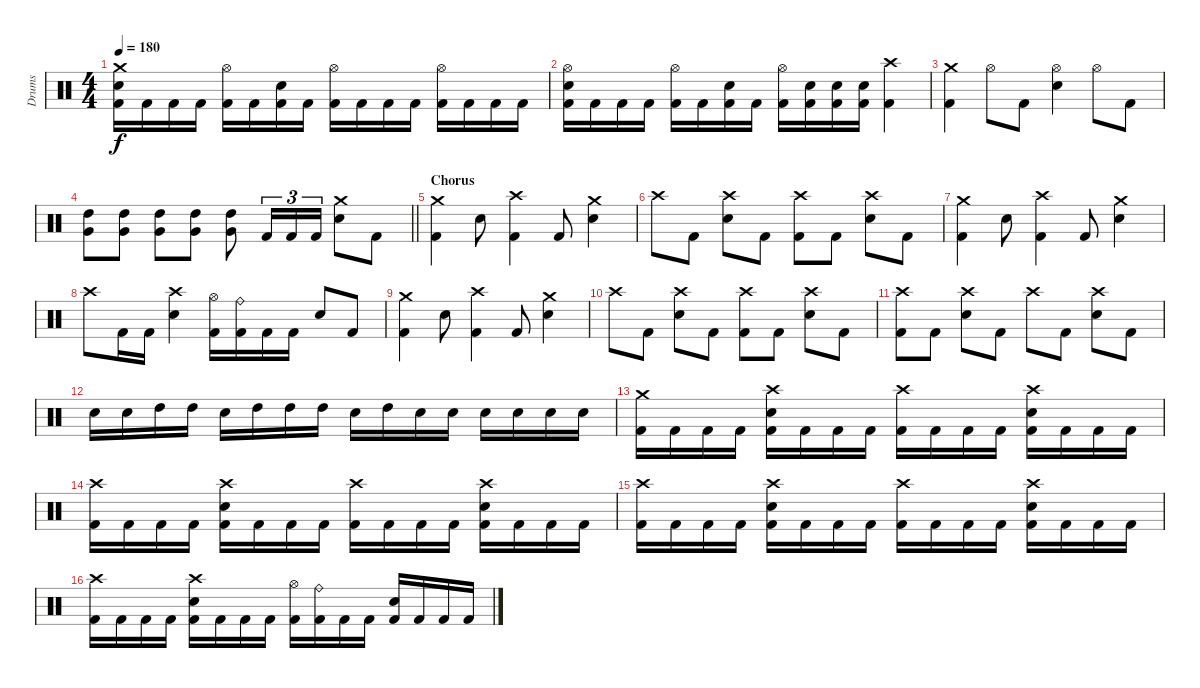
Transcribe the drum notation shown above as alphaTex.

\track ("Drums" "Drums") {instrument percussion}
\staff {score}
\articulation defaults
\ts (4 4)
\tempo 180
\clef neutral
\ks c
("Crash medium (hit)" "Snare (hit) 2" "Kick (hit) 2").16{dy f} "Kick (hit) 2".16 "Kick (hit) 2".16 "Kick (hit) 2".16 ("Hi-Hat (open)" "Kick (hit) 2").16 "Kick (hit) 2".16 ("Snare (hit) 2" "Kick (hit) 2").16 "Kick (hit) 2".16 ("Hi-Hat (open)" "Kick (hit) 2").16 "Kick (hit) 2".16 "Kick (hit) 2".16 "Kick (hit) 2".16 ("Hi-Hat (open)" "Kick (hit) 2").16 "Kick (hit) 2".16 "Kick (hit) 2".16 "Kick (hit) 2".16 |
("Hi-Hat (open)" "Snare (hit) 2" "Kick (hit) 2").16 "Kick (hit) 2".16 "Kick (hit) 2".16 "Kick (hit) 2".16 ("Hi-Hat (open)" "Kick (hit) 2").16 "Kick (hit) 2".16 ("Snare (hit) 2" "Kick (hit) 2").16 "Kick (hit) 2".16 ("Hi-Hat (open)" "Kick (hit) 2").16 ("Snare (hit) 2" "Kick (hit) 2").16 ("Snare (hit) 2" "Kick (hit) 2").16 ("Snare (hit) 2" "Kick (hit) 2").16 ("Crash high (hit)" "Kick (hit) 2").4 |
("Crash medium (hit)" "Kick (hit) 2").4 "Hi-Hat (open)".8 "Kick (hit) 2".8 ("Hi-Hat (open)" "Snare (hit) 2").4 "Hi-Hat (open)".8 "Kick (hit) 2".8 |
\barLineRight lightlight
("High Tom (hit)" "Very Low Tom (hit)").8 ("High Tom (hit)" "Very Low Tom (hit)").8 ("High Tom (hit)" "Very Low Tom (hit)").8 ("High Tom (hit)" "Very Low Tom (hit)").8 ("High Tom (hit)" "Very Low Tom (hit)").8 "Kick (hit) 2".16{tu (3 2)} "Kick (hit) 2".16{tu (3 2)} "Kick (hit) 2".16{tu (3 2)} ("Crash medium (hit)" "Snare (hit) 2").8 "Kick (hit) 2".8 |
\section ("" "Chorus")
("Crash medium (hit)" "Kick (hit) 2").4 "Snare (hit) 2".8 ("Crash high (hit)" "Kick (hit) 2").4 "Kick (hit) 2".8 ("Crash medium (hit)" "Snare (hit) 2").4 |
"Crash high (hit)".8 "Kick (hit) 2".8 ("Crash high (hit)" "Snare (hit) 2").8 "Kick (hit) 2".8 ("Crash high (hit)" "Kick (hit) 2").8 "Kick (hit) 2".8 ("Crash high (hit)" "Snare (hit) 2").8 "Kick (hit) 2".8 |
("Crash medium (hit)" "Kick (hit) 2").4 "Snare (hit) 2".8 ("Crash high (hit)" "Kick (hit) 2").4 "Kick (hit) 2".8 ("Crash medium (hit)" "Snare (hit) 2").4 |
"Crash high (hit)".8 "Kick (hit) 2".16 "Kick (hit) 2".16 ("Crash high (hit)" "Snare (hit) 2").4 ("Hi-Hat (open)" "Kick (hit) 2").16 ("Ride (bell)" "Kick (hit) 2").16 "Kick (hit) 2".16 "Kick (hit) 2".16 "Snare (hit) 2".8 "Kick (hit) 2".8 |
("Crash medium (hit)" "Kick (hit) 2").4 "Snare (hit) 2".8 ("Crash high (hit)" "Kick (hit) 2").4 "Kick (hit) 2".8 ("Crash medium (hit)" "Snare (hit) 2").4 |
"Crash high (hit)".8 "Kick (hit) 2".8 ("Crash high (hit)" "Snare (hit) 2").8 "Kick (hit) 2".8 ("Crash high (hit)" "Kick (hit) 2").8 "Kick (hit) 2".8 ("Crash high (hit)" "Snare (hit) 2").8 "Kick (hit) 2".8 |
("Crash high (hit)" "Kick (hit) 2").8 "Kick (hit) 2".8 ("Crash high (hit)" "Snare (hit) 2").8 "Kick (hit) 2".8 "Crash high (hit)".8 "Kick (hit) 2".8 ("Crash high (hit)" "Snare (hit) 2").8 "Kick (hit) 2".8 |
"Snare (hit) 2".16 "Snare (hit) 2".16 "High Tom (hit)".16 "High Tom (hit)".16 "Snare (hit) 2".16 "High Tom (hit)".16 "High Tom (hit)".16 "High Tom (hit)".16 "Snare (hit) 2".16 "High Tom (hit)".16 "Snare (hit) 2".16 "Snare (hit) 2".16 "Snare (hit) 2".16 "Snare (hit) 2".16 "Snare (hit) 2".16 "Snare (hit) 2".16 |
("Crash medium (hit)" "Kick (hit) 2").16 "Kick (hit) 2".16 "Kick (hit) 2".16 "Kick (hit) 2".16 ("Crash high (hit)" "Snare (hit) 2" "Kick (hit) 2").16 "Kick (hit) 2".16 "Kick (hit) 2".16 "Kick (hit) 2".16 ("Crash high (hit)" "Kick (hit) 2").16 "Kick (hit) 2".16 "Kick (hit) 2".16 "Kick (hit) 2".16 ("Crash high (hit)" "Snare (hit) 2" "Kick (hit) 2").16 "Kick (hit) 2".16 "Kick (hit) 2".16 "Kick (hit) 2".16 |
("Crash high (hit)" "Kick (hit) 2").16 "Kick (hit) 2".16 "Kick (hit) 2".16 "Kick (hit) 2".16 ("Crash high (hit)" "Snare (hit) 2" "Kick (hit) 2").16 "Kick (hit) 2".16 "Kick (hit) 2".16 "Kick (hit) 2".16 ("Crash high (hit)" "Kick (hit) 2").16 "Kick (hit) 2".16 "Kick (hit) 2".16 "Kick (hit) 2".16 ("Crash high (hit)" "Snare (hit) 2" "Kick (hit) 2").16 "Kick (hit) 2".16 "Kick (hit) 2".16 "Kick (hit) 2".16 |
("Crash high (hit)" "Kick (hit) 2").16 "Kick (hit) 2".16 "Kick (hit) 2".16 "Kick (hit) 2".16 ("Crash high (hit)" "Snare (hit) 2" "Kick (hit) 2").16 "Kick (hit) 2".16 "Kick (hit) 2".16 "Kick (hit) 2".16 ("Crash high (hit)" "Kick (hit) 2").16 "Kick (hit) 2".16 "Kick (hit) 2".16 "Kick (hit) 2".16 ("Crash high (hit)" "Snare (hit) 2" "Kick (hit) 2").16 "Kick (hit) 2".16 "Kick (hit) 2".16 "Kick (hit) 2".16 |
("Crash high (hit)" "Kick (hit) 2").16 "Kick (hit) 2".16 "Kick (hit) 2".16 "Kick (hit) 2".16 ("Crash high (hit)" "Snare (hit) 2" "Kick (hit) 2").16 "Kick (hit) 2".16 "Kick (hit) 2".16 "Kick (hit) 2".16 ("Hi-Hat (open)" "Kick (hit) 2").16 ("Ride (bell)" "Kick (hit) 2").16 "Kick (hit) 2".16 "Kick (hit) 2".16 ("Snare (hit) 2" "Kick (hit) 2").16 "Kick (hit) 2".16 "Kick (hit) 2".16 "Kick (hit) 2".16
